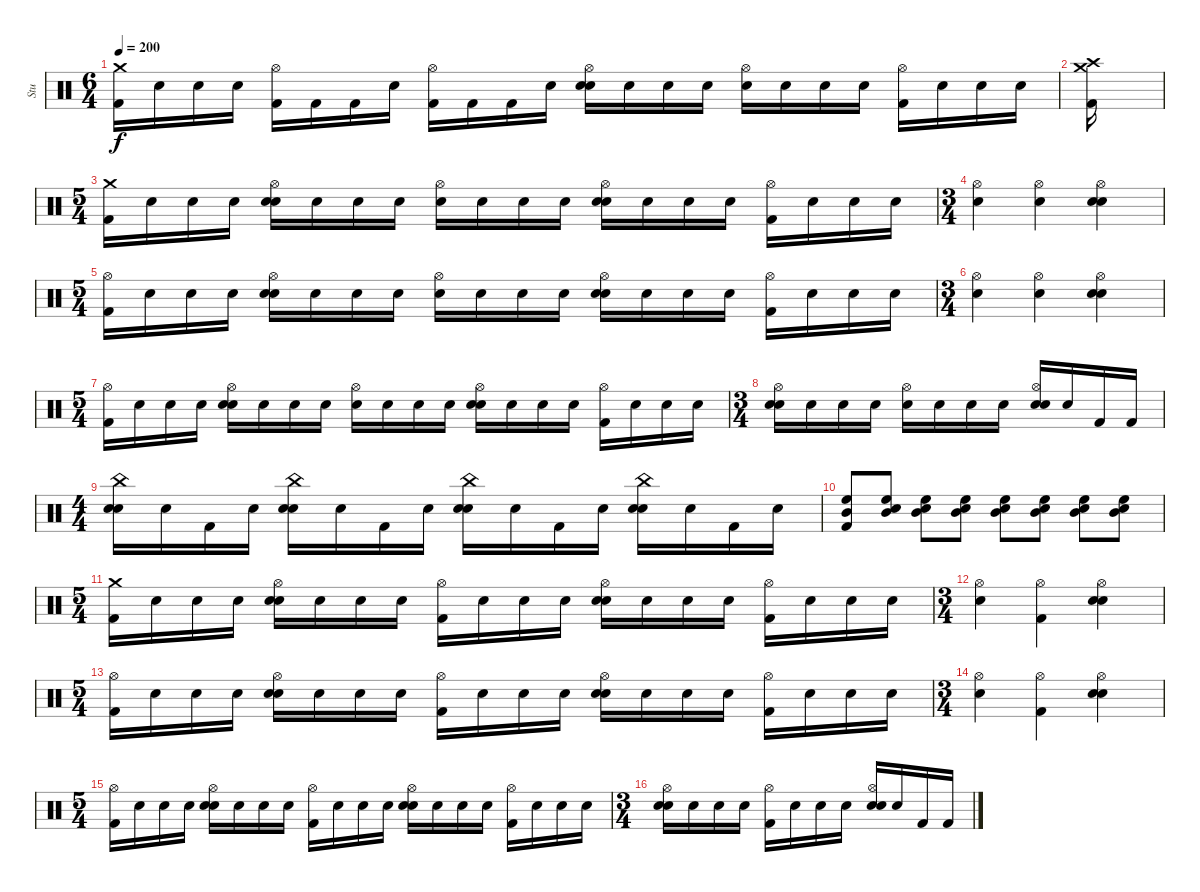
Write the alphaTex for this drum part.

\track ("Stu" "Stu") {instrument percussion}
\staff {score}
\articulation defaults
\ts (6 4)
\tempo 200
\clef neutral
\ks c
("Crash medium (hit)" "Kick (hit) 2").16{dy f} "Snare (hit)"{x}.16 "Snare (hit)"{x}.16 "Snare (hit)"{x}.16 ("Hi-Hat (open)" "Kick (hit) 2").16 "Kick (hit) 2".16 "Kick (hit) 2".16 "Snare (hit)"{x}.16 ("Hi-Hat (open)" "Kick (hit) 2").16 "Kick (hit) 2".16 "Kick (hit) 2".16 "Snare (hit)"{x}.16 ("Hi-Hat (open)" "Electric Snare (hit)" "Snare (hit)"{x}).16 "Snare (hit)"{x}.16 "Snare (hit)"{x}.16 "Snare (hit)"{x}.16 ("Hi-Hat (open)" "Snare (hit)"{x}).16 "Snare (hit)"{x}.16 "Snare (hit)"{x}.16 "Snare (hit)"{x}.16 ("Hi-Hat (open)" "Kick (hit) 2").16 "Snare (hit)"{x}.16 "Snare (hit)"{x}.16 "Snare (hit)"{x}.16 |
("Crash medium (hit)" "Crash high (hit)" "Kick (hit) 2").16 |
\ts (5 4)
("Crash medium (hit)" "Kick (hit) 2").16 "Snare (hit)"{x}.16 "Snare (hit)"{x}.16 "Snare (hit)"{x}.16 ("Hi-Hat (open)" "Electric Snare (hit)" "Snare (hit)"{x}).16 "Snare (hit)"{x}.16 "Snare (hit)"{x}.16 "Snare (hit)"{x}.16 ("Hi-Hat (open)" "Snare (hit)"{x}).16 "Snare (hit)"{x}.16 "Snare (hit)"{x}.16 "Snare (hit)"{x}.16 ("Hi-Hat (open)" "Electric Snare (hit)" "Snare (hit)"{x}).16 "Snare (hit)"{x}.16 "Snare (hit)"{x}.16 "Snare (hit)"{x}.16 ("Hi-Hat (open)" "Kick (hit) 2").16 "Snare (hit)"{x}.16 "Snare (hit)"{x}.16 "Snare (hit)"{x}.16 |
\ts (3 4)
("Hi-Hat (open)" "Electric Snare (hit)").4 ("Hi-Hat (open)" "Snare (hit)"{x}).4 ("Hi-Hat (open)" "Electric Snare (hit)" "Snare (hit)"{x}).4 |
\ts (5 4)
("Hi-Hat (open)" "Kick (hit) 2").16 "Snare (hit)"{x}.16 "Snare (hit)"{x}.16 "Snare (hit)"{x}.16 ("Hi-Hat (open)" "Electric Snare (hit)" "Snare (hit)"{x}).16 "Snare (hit)"{x}.16 "Snare (hit)"{x}.16 "Snare (hit)"{x}.16 ("Hi-Hat (open)" "Snare (hit)"{x}).16 "Snare (hit)"{x}.16 "Snare (hit)"{x}.16 "Snare (hit)"{x}.16 ("Hi-Hat (open)" "Electric Snare (hit)" "Snare (hit)"{x}).16 "Snare (hit)"{x}.16 "Snare (hit)"{x}.16 "Snare (hit)"{x}.16 ("Hi-Hat (open)" "Kick (hit) 2").16 "Snare (hit)"{x}.16 "Snare (hit)"{x}.16 "Snare (hit)"{x}.16 |
\ts (3 4)
("Hi-Hat (open)" "Electric Snare (hit)").4 ("Hi-Hat (open)" "Snare (hit)"{x}).4 ("Hi-Hat (open)" "Electric Snare (hit)" "Snare (hit)"{x}).4 |
\ts (5 4)
("Hi-Hat (open)" "Kick (hit) 2").16 "Snare (hit)"{x}.16 "Snare (hit)"{x}.16 "Snare (hit)"{x}.16 ("Hi-Hat (open)" "Electric Snare (hit)" "Snare (hit)"{x}).16 "Snare (hit)"{x}.16 "Snare (hit)"{x}.16 "Snare (hit)"{x}.16 ("Hi-Hat (open)" "Snare (hit)"{x}).16 "Snare (hit)"{x}.16 "Snare (hit)"{x}.16 "Snare (hit)"{x}.16 ("Hi-Hat (open)" "Electric Snare (hit)" "Snare (hit)"{x}).16 "Snare (hit)"{x}.16 "Snare (hit)"{x}.16 "Snare (hit)"{x}.16 ("Hi-Hat (open)" "Kick (hit) 2").16 "Snare (hit)"{x}.16 "Snare (hit)"{x}.16 "Snare (hit)"{x}.16 |
\ts (3 4)
("Hi-Hat (open)" "Electric Snare (hit)" "Snare (hit)"{x}).16 "Snare (hit)"{x}.16 "Snare (hit)"{x}.16 "Snare (hit)"{x}.16 ("Hi-Hat (open)" "Snare (hit)"{x}).16 "Snare (hit)"{x}.16 "Snare (hit)"{x}.16 "Snare (hit)"{x}.16 ("Hi-Hat (open)" "Electric Snare (hit)" "Snare (hit)"{x}).16 "Snare (hit)"{x}.16 "Kick (hit) 2".16 "Kick (hit) 2".16 |
\ts (4 4)
("China (hit)" "Electric Snare (hit)" "Snare (hit)"{x}).16 "Snare (hit)"{x}.16 "Kick (hit) 2".16 "Snare (hit)"{x}.16 ("China (hit)" "Electric Snare (hit)" "Snare (hit)"{x}).16 "Snare (hit)"{x}.16 "Kick (hit) 2".16 "Snare (hit)"{x}.16 ("China (hit)" "Electric Snare (hit)" "Snare (hit)"{x}).16 "Snare (hit)"{x}.16 "Kick (hit) 2".16 "Snare (hit)"{x}.16 ("China (hit)" "Electric Snare (hit)" "Snare (hit)"{x}).16 "Snare (hit)"{x}.16 "Kick (hit) 2".16 "Snare (hit)"{x}.16 |
("High Floor Tom (hit)" "Mid Tom (hit)" "Kick (hit) 2"{x}).8 ("High Floor Tom (hit)" "Mid Tom (hit)" "Snare (hit)"{x}).8 ("High Floor Tom (hit)" "Mid Tom (hit)" "Snare (hit)"{x}).8 ("High Floor Tom (hit)" "Mid Tom (hit)" "Snare (hit)"{x}).8 ("High Floor Tom (hit)" "Mid Tom (hit)" "Snare (hit)"{x}).8 ("High Floor Tom (hit)" "Mid Tom (hit)" "Snare (hit)"{x}).8 ("High Floor Tom (hit)" "Mid Tom (hit)" "Snare (hit)"{x}).8 ("High Floor Tom (hit)" "Mid Tom (hit)" "Snare (hit)"{x}).8 |
\ts (5 4)
("Crash medium (hit)" "Kick (hit) 2").16 "Snare (hit)"{x}.16 "Snare (hit)"{x}.16 "Snare (hit)"{x}.16 ("Hi-Hat (open)" "Electric Snare (hit)" "Snare (hit)"{x}).16 "Snare (hit)"{x}.16 "Snare (hit)"{x}.16 "Snare (hit)"{x}.16 ("Hi-Hat (open)" "Kick (hit) 2").16 "Snare (hit)"{x}.16 "Snare (hit)"{x}.16 "Snare (hit)"{x}.16 ("Hi-Hat (open)" "Electric Snare (hit)" "Snare (hit)"{x}).16 "Snare (hit)"{x}.16 "Snare (hit)"{x}.16 "Snare (hit)"{x}.16 ("Hi-Hat (open)" "Kick (hit) 2").16 "Snare (hit)"{x}.16 "Snare (hit)"{x}.16 "Snare (hit)"{x}.16 |
\ts (3 4)
("Hi-Hat (open)" "Electric Snare (hit)").4 ("Hi-Hat (open)" "Kick (hit) 2").4 ("Hi-Hat (open)" "Electric Snare (hit)" "Snare (hit)"{x}).4 |
\ts (5 4)
("Hi-Hat (open)" "Kick (hit) 2").16 "Snare (hit)"{x}.16 "Snare (hit)"{x}.16 "Snare (hit)"{x}.16 ("Hi-Hat (open)" "Electric Snare (hit)" "Snare (hit)"{x}).16 "Snare (hit)"{x}.16 "Snare (hit)"{x}.16 "Snare (hit)"{x}.16 ("Hi-Hat (open)" "Kick (hit) 2").16 "Snare (hit)"{x}.16 "Snare (hit)"{x}.16 "Snare (hit)"{x}.16 ("Hi-Hat (open)" "Electric Snare (hit)" "Snare (hit)"{x}).16 "Snare (hit)"{x}.16 "Snare (hit)"{x}.16 "Snare (hit)"{x}.16 ("Hi-Hat (open)" "Kick (hit) 2").16 "Snare (hit)"{x}.16 "Snare (hit)"{x}.16 "Snare (hit)"{x}.16 |
\ts (3 4)
("Hi-Hat (open)" "Electric Snare (hit)").4 ("Hi-Hat (open)" "Kick (hit) 2").4 ("Hi-Hat (open)" "Electric Snare (hit)" "Snare (hit)"{x}).4 |
\ts (5 4)
("Hi-Hat (open)" "Kick (hit) 2").16 "Snare (hit)"{x}.16 "Snare (hit)"{x}.16 "Snare (hit)"{x}.16 ("Hi-Hat (open)" "Electric Snare (hit)" "Snare (hit)"{x}).16 "Snare (hit)"{x}.16 "Snare (hit)"{x}.16 "Snare (hit)"{x}.16 ("Hi-Hat (open)" "Kick (hit) 2").16 "Snare (hit)"{x}.16 "Snare (hit)"{x}.16 "Snare (hit)"{x}.16 ("Hi-Hat (open)" "Electric Snare (hit)" "Snare (hit)"{x}).16 "Snare (hit)"{x}.16 "Snare (hit)"{x}.16 "Snare (hit)"{x}.16 ("Hi-Hat (open)" "Kick (hit) 2").16 "Snare (hit)"{x}.16 "Snare (hit)"{x}.16 "Snare (hit)"{x}.16 |
\ts (3 4)
("Hi-Hat (open)" "Electric Snare (hit)" "Snare (hit)"{x}).16 "Snare (hit)"{x}.16 "Snare (hit)"{x}.16 "Snare (hit)"{x}.16 ("Hi-Hat (open)" "Kick (hit) 2").16 "Snare (hit)"{x}.16 "Snare (hit)"{x}.16 "Snare (hit)"{x}.16 ("Hi-Hat (open)" "Electric Snare (hit)" "Snare (hit)"{x}).16 "Snare (hit)"{x}.16 "Kick (hit) 2".16 "Kick (hit) 2".16
